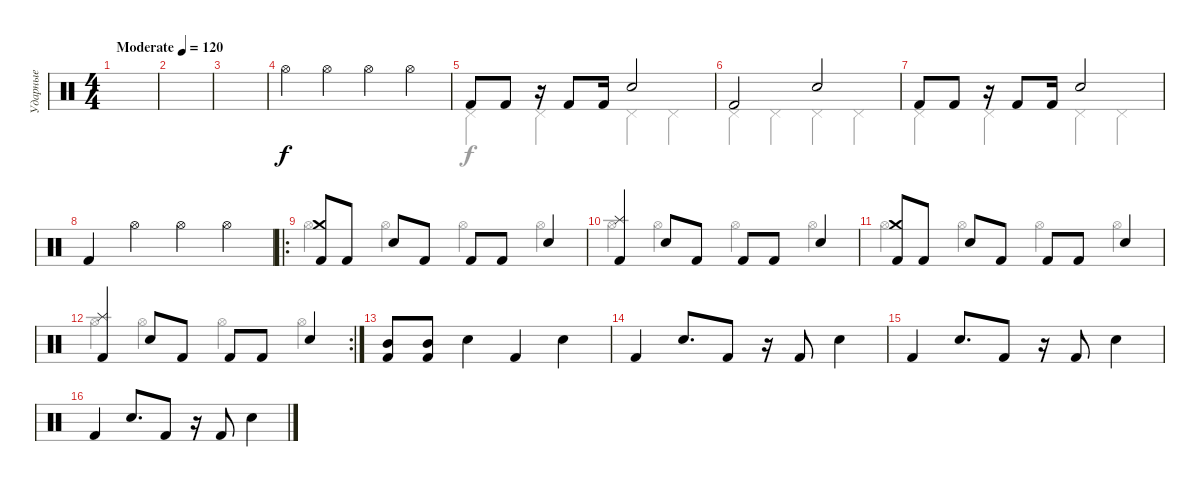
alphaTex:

\track ("Ударные" "Ударные") {instrument percussion}
\staff {score}
\articulation defaults
\voice
\ts (4 4)
\tempo (120 "Moderate")
\clef neutral
\ks c
|
|
|
"Hi-Hat (open)".4 "Hi-Hat (open)".4 "Hi-Hat (open)".4 "Hi-Hat (open)".4 |
"Kick (hit) 2".8 "Kick (hit) 2".8 r.16 "Kick (hit) 2".8 "Kick (hit) 2".16 "Electric Snare (hit)".2 |
"Kick (hit) 2".2 "Electric Snare (hit)".2 |
"Kick (hit) 2".8 "Kick (hit) 2".8 r.16 "Kick (hit) 2".8 "Kick (hit) 2".16 "Electric Snare (hit)".2 |
"Kick (hit) 2".4 "Hi-Hat (open)".4 "Hi-Hat (open)".4 "Hi-Hat (open)".4 |
\ro
("Crash medium (hit)" "Kick (hit) 2").8 "Kick (hit) 2".8 "Electric Snare (hit)".8 "Kick (hit) 2".8 "Kick (hit) 2".8 "Kick (hit) 2".8 "Electric Snare (hit)".4 |
("Splash (hit)" "Kick (hit) 2").4 "Electric Snare (hit)".8 "Kick (hit) 2".8 "Kick (hit) 2".8 "Kick (hit) 2".8 "Electric Snare (hit)".4 |
("Crash medium (hit)" "Kick (hit) 2").8 "Kick (hit) 2".8 "Electric Snare (hit)".8 "Kick (hit) 2".8 "Kick (hit) 2".8 "Kick (hit) 2".8 "Electric Snare (hit)".4 |
\rc 2
("Splash (hit)" "Kick (hit) 2").4 "Electric Snare (hit)".8 "Kick (hit) 2".8 "Kick (hit) 2".8 "Kick (hit) 2".8 "Electric Snare (hit)".4 |
("Mid Tom (hit)" "Kick (hit) 2").8 ("Mid Tom (hit)" "Kick (hit) 2").8 "Electric Snare (hit)".4 "Kick (hit) 2".4 "Electric Snare (hit)".4 |
"Kick (hit) 2".4 "Electric Snare (hit)".8{d} "Kick (hit) 2".8 r.16 "Kick (hit) 2".8 "Electric Snare (hit)".4 |
"Kick (hit) 2".4 "Electric Snare (hit)".8{d} "Kick (hit) 2".8 r.16 "Kick (hit) 2".8 "Electric Snare (hit)".4 |
"Kick (hit) 2".4 "Electric Snare (hit)".8{d} "Kick (hit) 2".8 r.16 "Kick (hit) 2".8 "Electric Snare (hit)".4
\voice
\clef neutral
\ottava regular
\simile none
\ks c
|
|
|
|
"Pedal Hi-Hat (hit)".4 "Pedal Hi-Hat (hit)".4 "Pedal Hi-Hat (hit)".4 "Pedal Hi-Hat (hit)".4 |
"Pedal Hi-Hat (hit)".4 "Pedal Hi-Hat (hit)".4 "Pedal Hi-Hat (hit)".4 "Pedal Hi-Hat (hit)".4 |
"Pedal Hi-Hat (hit)".4 "Pedal Hi-Hat (hit)".4 "Pedal Hi-Hat (hit)".4 "Pedal Hi-Hat (hit)".4 |
|
"Hi-Hat (open)".4 "Hi-Hat (open)".4 "Hi-Hat (open)".4 "Hi-Hat (open)".4 |
"Hi-Hat (open)".4 "Hi-Hat (open)".4 "Hi-Hat (open)".4 "Hi-Hat (open)".4 |
"Hi-Hat (open)".4 "Hi-Hat (open)".4 "Hi-Hat (open)".4 "Hi-Hat (open)".4 |
"Hi-Hat (open)".4 "Hi-Hat (open)".4 "Hi-Hat (open)".4 "Hi-Hat (open)".4 |
|
|
|
